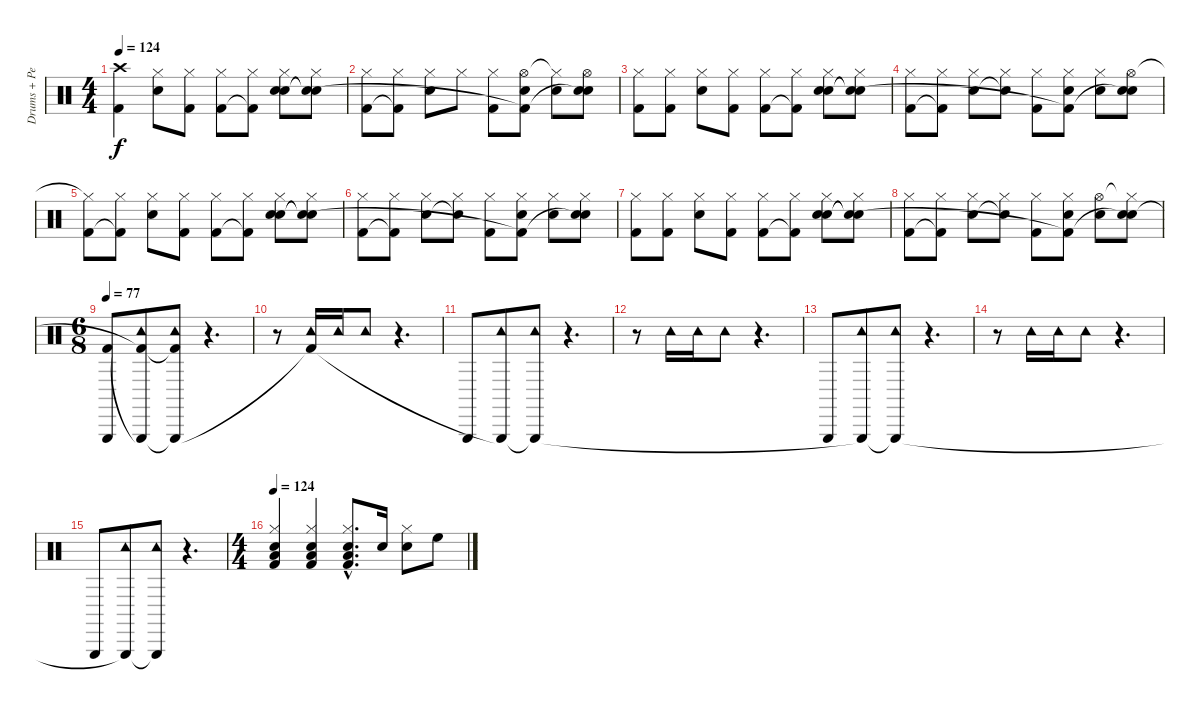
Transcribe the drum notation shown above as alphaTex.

\track ("Drums + Percussions (Bill Berry)" "Drums + Pe") {instrument percussion}
\staff {score}
\articulation defaults
\ts (4 4)
\tempo 124
\clef neutral
\ks c
("Crash high (hit)" "Kick (hit) 2").4{dy f} ("Hi-Hat (closed)" "Snare (hit) 2").8 ("Hi-Hat (closed)" "Kick (hit) 2").8 ("Hi-Hat (closed)" "Kick (hit) 2").8 ("Hi-Hat (closed)" "Kick (hit) 2"{t}).8 ("Hi-Hat (closed)" "Hand Clap (hit)" "Snare (hit) 2").8 ("Hi-Hat (closed)" "Hand Clap (hit)"{t} "Snare (hit) 2"{t}).8 |
("Hi-Hat (closed)" "Kick (hit) 2").8 ("Hi-Hat (closed)" "Kick (hit) 2"{t}).8 ("Hi-Hat (closed)" "Snare (hit) 2").8 "Hi-Hat (closed)".8 ("Hi-Hat (closed)" "Kick (hit) 2").8 ("Hi-Hat (open)" "Hand Clap (hit)" "Kick (hit) 2"{t}).8 ("Hi-Hat (closed)"{t} "Snare (hit) 2").8 ("Hi-Hat (open)" "Hand Clap (hit)" "Snare (hit) 2"{t}).8 |
("Hi-Hat (closed)" "Kick (hit) 2").8 ("Hi-Hat (closed)" "Kick (hit) 2").8 ("Hi-Hat (closed)" "Snare (hit) 2").8 ("Hi-Hat (closed)" "Kick (hit) 2").8 ("Hi-Hat (closed)" "Kick (hit) 2").8 ("Hi-Hat (closed)" "Kick (hit) 2"{t}).8 ("Hi-Hat (closed)" "Hand Clap (hit)" "Snare (hit) 2").8 ("Hi-Hat (closed)" "Hand Clap (hit)"{t} "Snare (hit) 2"{t}).8 |
("Hi-Hat (closed)" "Kick (hit) 2").8 ("Hi-Hat (closed)" "Kick (hit) 2"{t}).8 ("Hi-Hat (closed)" "Snare (hit) 2").8 ("Hi-Hat (closed)" "Snare (hit) 2"{t}).8 ("Hi-Hat (closed)" "Kick (hit) 2").8 ("Hi-Hat (closed)" "Hand Clap (hit)" "Kick (hit) 2"{t}).8 ("Hi-Hat (closed)" "Snare (hit) 2").8 ("Hi-Hat (open)" "Hand Clap (hit)" "Snare (hit) 2"{t}).8 |
("Hi-Hat (closed)"{t} "Kick (hit) 2").8 ("Hi-Hat (closed)" "Kick (hit) 2"{t}).8 ("Hi-Hat (closed)" "Snare (hit) 2").8 ("Hi-Hat (closed)" "Kick (hit) 2").8 ("Hi-Hat (closed)" "Kick (hit) 2").8 ("Hi-Hat (closed)" "Kick (hit) 2"{t}).8 ("Hi-Hat (closed)" "Hand Clap (hit)" "Snare (hit) 2").8 ("Hi-Hat (closed)" "Hand Clap (hit)"{t} "Snare (hit) 2"{t}).8 |
("Hi-Hat (closed)" "Kick (hit) 2").8 ("Hi-Hat (closed)" "Kick (hit) 2"{t}).8 ("Hi-Hat (closed)" "Snare (hit) 2").8 ("Hi-Hat (closed)" "Snare (hit) 2"{t}).8 ("Hi-Hat (closed)" "Kick (hit) 2").8 ("Hi-Hat (closed)" "Hand Clap (hit)" "Kick (hit) 2"{t}).8 ("Hi-Hat (closed)" "Snare (hit) 2").8 ("Hi-Hat (closed)" "Hand Clap (hit)" "Snare (hit) 2"{t}).8 |
("Hi-Hat (closed)" "Kick (hit) 2").8 ("Hi-Hat (closed)" "Kick (hit) 2").8 ("Hi-Hat (closed)" "Snare (hit) 2").8 ("Hi-Hat (closed)" "Kick (hit) 2").8 ("Hi-Hat (closed)" "Kick (hit) 2").8 ("Hi-Hat (closed)" "Kick (hit) 2"{t}).8 ("Hi-Hat (closed)" "Hand Clap (hit)" "Snare (hit) 2").8 ("Hi-Hat (closed)" "Hand Clap (hit)"{t} "Snare (hit) 2"{t}).8 |
("Hi-Hat (closed)" "Kick (hit) 2").8 ("Hi-Hat (closed)" "Kick (hit) 2"{t}).8 ("Hi-Hat (closed)" "Snare (hit) 2").8 ("Hi-Hat (closed)" "Snare (hit) 2"{t}).8 ("Hi-Hat (closed)" "Kick (hit) 2").8 ("Hi-Hat (closed)" "Hand Clap (hit)" "Kick (hit) 2"{t}).8 ("Hi-Hat (open)" "Snare (hit) 2").8 ("Hi-Hat (closed)"{t} "Hand Clap (hit)" "Snare (hit) 2"{t}).8 |
\ts (6 8)
\tempo 77
("Triangle (hit)" "Kick (hit) 2").8 ("Tambourine (hit)" "Triangle (hit)"{t} "Kick (hit) 2"{t}).8 ("Tambourine (hit)" "Triangle (hit)"{t} "Kick (hit) 2"{t}).8 r.4{d} |
r.8 ("Tambourine (hit)" "Kick (hit) 2"{t}).16 "Tambourine (hit)".16 "Tambourine (hit)".8 r.4{d} |
"Triangle (hit)".8 ("Tambourine (hit)" "Triangle (hit)"{t}).8 ("Tambourine (hit)" "Triangle (hit)"{t}).8 r.4{d} |
r.8 "Tambourine (hit)".16 "Tambourine (hit)".16 "Tambourine (hit)".8 r.4{d} |
"Triangle (hit)".8 ("Tambourine (hit)" "Triangle (hit)"{t}).8 ("Tambourine (hit)" "Triangle (hit)"{t}).8 r.4{d} |
r.8 "Tambourine (hit)".16 "Tambourine (hit)".16 "Tambourine (hit)".8 r.4{d} |
"Triangle (hit)".8 ("Tambourine (hit)" "Triangle (hit)"{t}).8 ("Tambourine (hit)" "Triangle (hit)"{t}).8 r.4{d} |
\ts (4 4)
\tempo 124
("Hi-Hat (closed)" "Snare (hit) 2" "Low Tom (hit)" "Kick (hit) 2").4 ("Hi-Hat (closed)" "Snare (hit) 2" "Low Tom (hit)" "Kick (hit) 2").4 ("Hi-Hat (closed)"{hac} "Snare (hit) 2"{hac} "Low Tom (hit)"{hac} "Kick (hit) 2"{hac}).8{d} "Snare (hit) 2".16 ("Hi-Hat (closed)" "Snare (hit) 2").8 "High Floor Tom (hit)".8
